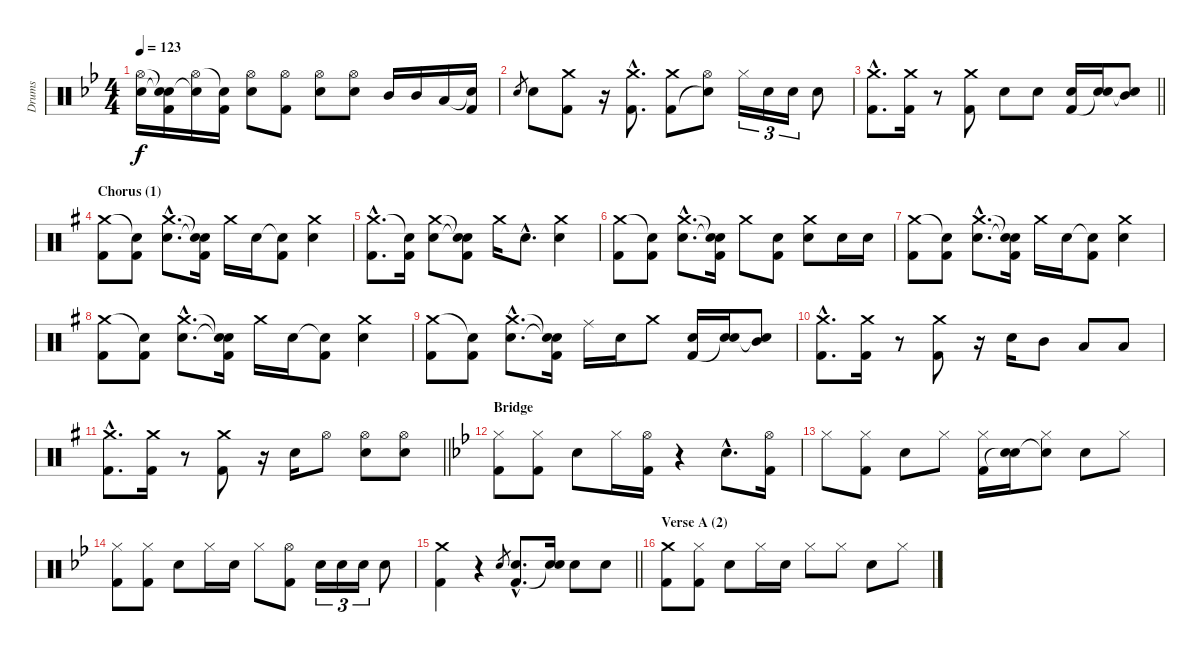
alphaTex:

\track ("Drums" "Drums") {instrument percussion}
\staff {score}
\articulation defaults
\ts (4 4)
\tempo 123
\clef neutral
\ks gminor
("Hi-Hat (open)" "Electric Snare (hit)").16{dy f} ("Snare (hit)"{t} "Snare (hit)"{t} "Kick (hit) 2").16 ("Hi-Hat (open)" "Snare (hit)"{t}).16 ("Snare (hit)"{t} "Kick (hit) 2").16 ("Hi-Hat (open)" "Electric Snare (hit)").8 ("Hi-Hat (open)" "Kick (hit) 2").8 ("Hi-Hat (open)" "Electric Snare (hit)").8 ("Hi-Hat (open)" "Electric Snare (hit)").8 "Mid Tom (hit)".16 "Mid Tom (hit)".16 "Low Floor Tom (hit)".16 ("Snare (hit)"{t} "Kick (hit) 2").16 |
"Electric Snare (hit)".8{gr} "Electric Snare (hit)".8 ("Crash medium (hit)" "Kick (hit) 2").8 r.16 ("Crash medium (hit)"{hac} "Kick (hit) 2"{hac}).8{d} ("Crash medium (hit)" "Kick (hit) 2").8 ("Hi-Hat (open)" "Snare (hit)"{t}).8 "Hi-Hat (closed)".16{tu (3 2)} "Electric Snare (hit)".16{tu (3 2)} "Electric Snare (hit)".16{tu (3 2)} "Electric Snare (hit)".8 |
\barLineRight lightlight
("Crash medium (hit)"{hac} "Kick (hit) 2"{hac}).8{d} ("Crash medium (hit)" "Kick (hit) 2").16 r.8 ("Crash medium (hit)" "Kick (hit) 2").8 "Electric Snare (hit)".8 "Electric Snare (hit)".8 ("Electric Snare (hit)" "Kick (hit) 2").16 ("Electric Snare (hit)" "Snare (hit)"{t}).16 ("Mid Tom (hit)" "Snare (hit)"{t}).8 |
\section ("" "Chorus (1)")
\ks eminor
("Crash medium (hit)" "Kick (hit) 2").8 ("Snare (hit)"{t} "Kick (hit) 2").8 ("Crash medium (hit)"{hac} "Electric Snare (hit)"{hac}).8{d} ("Snare (hit)"{t} "Snare (hit)"{t} "Kick (hit) 2").16 "Crash medium (hit)".16 "Electric Snare (hit)".16 ("Snare (hit)"{t} "Kick (hit) 2").8 ("Crash medium (hit)" "Electric Snare (hit)").4 |
("Crash medium (hit)"{hac} "Kick (hit) 2"{hac}).8{d} ("Snare (hit)"{t} "Kick (hit) 2").16 ("Crash medium (hit)" "Electric Snare (hit)").8 ("Snare (hit)"{t} "Snare (hit)"{t} "Kick (hit) 2").8 "Crash medium (hit)".16 "Electric Snare (hit)"{hac}.8{d} ("Crash medium (hit)" "Electric Snare (hit)").4 |
("Crash medium (hit)" "Kick (hit) 2").8 ("Snare (hit)"{t} "Kick (hit) 2").8 ("Crash medium (hit)"{hac} "Electric Snare (hit)"{hac}).8{d} ("Snare (hit)"{t} "Snare (hit)"{t} "Kick (hit) 2").16 "Crash medium (hit)".8 ("Electric Snare (hit)" "Kick (hit) 2").8 ("Crash medium (hit)" "Electric Snare (hit)").8 "Electric Snare (hit)".16 "Electric Snare (hit)".16 |
("Crash medium (hit)" "Kick (hit) 2").8 ("Snare (hit)"{t} "Kick (hit) 2").8 ("Crash medium (hit)"{hac} "Electric Snare (hit)"{hac}).8{d} ("Snare (hit)"{t} "Snare (hit)"{t} "Kick (hit) 2").16 "Crash medium (hit)".16 "Electric Snare (hit)".16 ("Snare (hit)"{t} "Kick (hit) 2").8 ("Crash medium (hit)" "Electric Snare (hit)").4 |
("Crash medium (hit)" "Kick (hit) 2").8 ("Snare (hit)"{t} "Kick (hit) 2").8 ("Crash medium (hit)"{hac} "Electric Snare (hit)"{hac}).8{d} ("Snare (hit)"{t} "Snare (hit)"{t} "Kick (hit) 2").16 "Crash medium (hit)".16 "Electric Snare (hit)".16 ("Snare (hit)"{t} "Kick (hit) 2").8 ("Crash medium (hit)" "Electric Snare (hit)").4 |
("Crash medium (hit)" "Kick (hit) 2").8 ("Snare (hit)"{t} "Kick (hit) 2").8 ("Crash medium (hit)"{hac} "Electric Snare (hit)"{hac}).8{d} ("Snare (hit)"{t} "Snare (hit)"{t} "Kick (hit) 2").16 "Ride (middle)".16 "Electric Snare (hit)".16 "Crash medium (hit)".8 ("Electric Snare (hit)" "Kick (hit) 2").16 ("Electric Snare (hit)" "Snare (hit)"{t}).16 ("Mid Tom (hit)" "Snare (hit)"{t}).8 |
("Crash medium (hit)"{hac} "Kick (hit) 2"{hac}).8{d} ("Crash medium (hit)" "Kick (hit) 2").16 r.8 ("Crash medium (hit)" "Kick (hit) 2").8 r.16 "Electric Snare (hit)".16 "Mid Tom (hit)".8 "Low Floor Tom (hit)".8 "Low Floor Tom (hit)".8 |
\barLineRight lightlight
("Crash medium (hit)"{hac} "Kick (hit) 2"{hac}).8{d} ("Crash medium (hit)" "Kick (hit) 2").16 r.8 ("Crash medium (hit)" "Kick (hit) 2").8 r.16 "Electric Snare (hit)".16 "Hi-Hat (open)".8 ("Hi-Hat (open)" "Electric Snare (hit)").8 ("Hi-Hat (open)" "Electric Snare (hit)").8 |
\section ("" "Bridge")
\ks gminor
("Hi-Hat (closed)" "Kick (hit) 2").8 ("Hi-Hat (closed)" "Kick (hit) 2").8 "Electric Snare (hit)".8 "Hi-Hat (closed)".16 ("Hi-Hat (open)" "Kick (hit) 2").16 r.4 "Electric Snare (hit)"{hac}.8{d} ("Hi-Hat (open)" "Kick (hit) 2").16 |
"Hi-Hat (closed)".8 ("Hi-Hat (closed)" "Kick (hit) 2").8 "Electric Snare (hit)".8 "Hi-Hat (closed)".8 ("Hi-Hat (closed)" "Kick (hit) 2").16 ("Electric Snare (hit)" "Snare (hit)"{t}).16 ("Hi-Hat (closed)" "Snare (hit)"{t}).8 "Electric Snare (hit)".8 "Hi-Hat (closed)".8 |
("Hi-Hat (closed)" "Kick (hit) 2").8 ("Hi-Hat (closed)" "Kick (hit) 2").8 "Electric Snare (hit)".8 "Hi-Hat (closed)".16 "Electric Snare (hit)".16 "Hi-Hat (closed)".8 ("Hi-Hat (open)" "Kick (hit) 2").8 "Electric Snare (hit)".16{tu (3 2)} "Electric Snare (hit)".16{tu (3 2)} "Electric Snare (hit)".16{tu (3 2)} "Electric Snare (hit)".8 |
\barLineRight lightlight
("Crash medium (hit)" "Kick (hit) 2").4 r.4 "Electric Snare (hit)".8{gr} ("Electric Snare (hit)"{hac} "Kick (hit) 2"{hac}).8{d} ("Electric Snare (hit)" "Snare (hit)"{t}).16 "Electric Snare (hit)".8 "Electric Snare (hit)".8 |
\section ("" "Verse A (2)")
("Crash medium (hit)" "Kick (hit) 2").8 ("Hi-Hat (closed)" "Kick (hit) 2").8 "Electric Snare (hit)".8 "Hi-Hat (closed)".16 "Electric Snare (hit)".16 "Hi-Hat (closed)".8 "Hi-Hat (closed)".8 "Electric Snare (hit)".8 "Hi-Hat (closed)".8
